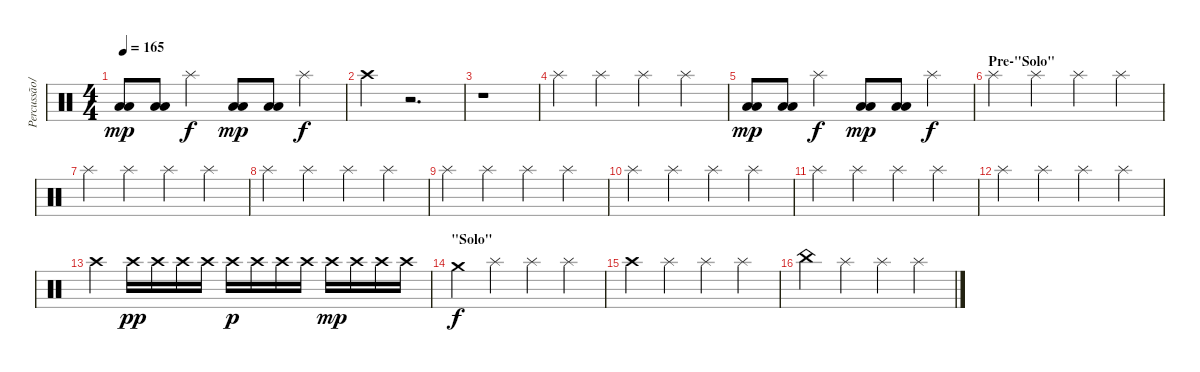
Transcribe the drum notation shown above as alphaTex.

\track ("Percussão/DJ" "Percussão/") {instrument percussion}
\staff {score}
\articulation defaults
\ts (4 4)
\tempo 165
\clef neutral
\ks c
("Low Tom (hit)" "Low Floor Tom (hit)").8{dy mp} ("Low Tom (hit)" "Low Floor Tom (hit)").8 "Splash (hit)".4{dy f} ("Low Tom (hit)" "Low Floor Tom (hit)").8{dy mp} ("Low Tom (hit)" "Low Floor Tom (hit)").8 "Splash (hit)".4{dy f} |
"Crash high (hit)".4 r.2{d} |
r.1 |
"Splash (hit)".4 "Splash (hit)".4 "Splash (hit)".4 "Splash (hit)".4 |
("Low Tom (hit)" "Low Floor Tom (hit)").8{dy mp} ("Low Tom (hit)" "Low Floor Tom (hit)").8 "Splash (hit)".4{dy f} ("Low Tom (hit)" "Low Floor Tom (hit)").8{dy mp} ("Low Tom (hit)" "Low Floor Tom (hit)").8 "Splash (hit)".4{dy f} |
\section ("" "Pre-\"Solo\"")
"Splash (hit)".4 "Splash (hit)".4 "Splash (hit)".4 "Splash (hit)".4 |
"Splash (hit)".4 "Splash (hit)".4 "Splash (hit)".4 "Splash (hit)".4 |
"Splash (hit)".4 "Splash (hit)".4 "Splash (hit)".4 "Splash (hit)".4 |
"Splash (hit)".4 "Splash (hit)".4 "Splash (hit)".4 "Splash (hit)".4 |
"Splash (hit)".4 "Splash (hit)".4 "Splash (hit)".4 "Splash (hit)".4 |
"Splash (hit)".4 "Splash (hit)".4 "Splash (hit)".4 "Splash (hit)".4 |
"Splash (hit)".4 "Splash (hit)".4 "Splash (hit)".4 "Splash (hit)".4 |
"Crash high (hit)".4 "Crash high (hit)".16{dy pp} "Crash high (hit)".16 "Crash high (hit)".16 "Crash high (hit)".16 "Crash high (hit)".16{dy p} "Crash high (hit)".16 "Crash high (hit)".16 "Crash high (hit)".16 "Crash high (hit)".16{dy mp} "Crash high (hit)".16 "Crash high (hit)".16 "Crash high (hit)".16 |
\section ("" "\"Solo\"")
"Crash medium (hit)".4{dy f} "Splash (hit)".4 "Splash (hit)".4 "Splash (hit)".4 |
"Crash high (hit)".4 "Splash (hit)".4 "Splash (hit)".4 "Splash (hit)".4 |
"China (hit)".4 "Splash (hit)".4 "Splash (hit)".4 "Splash (hit)".4
